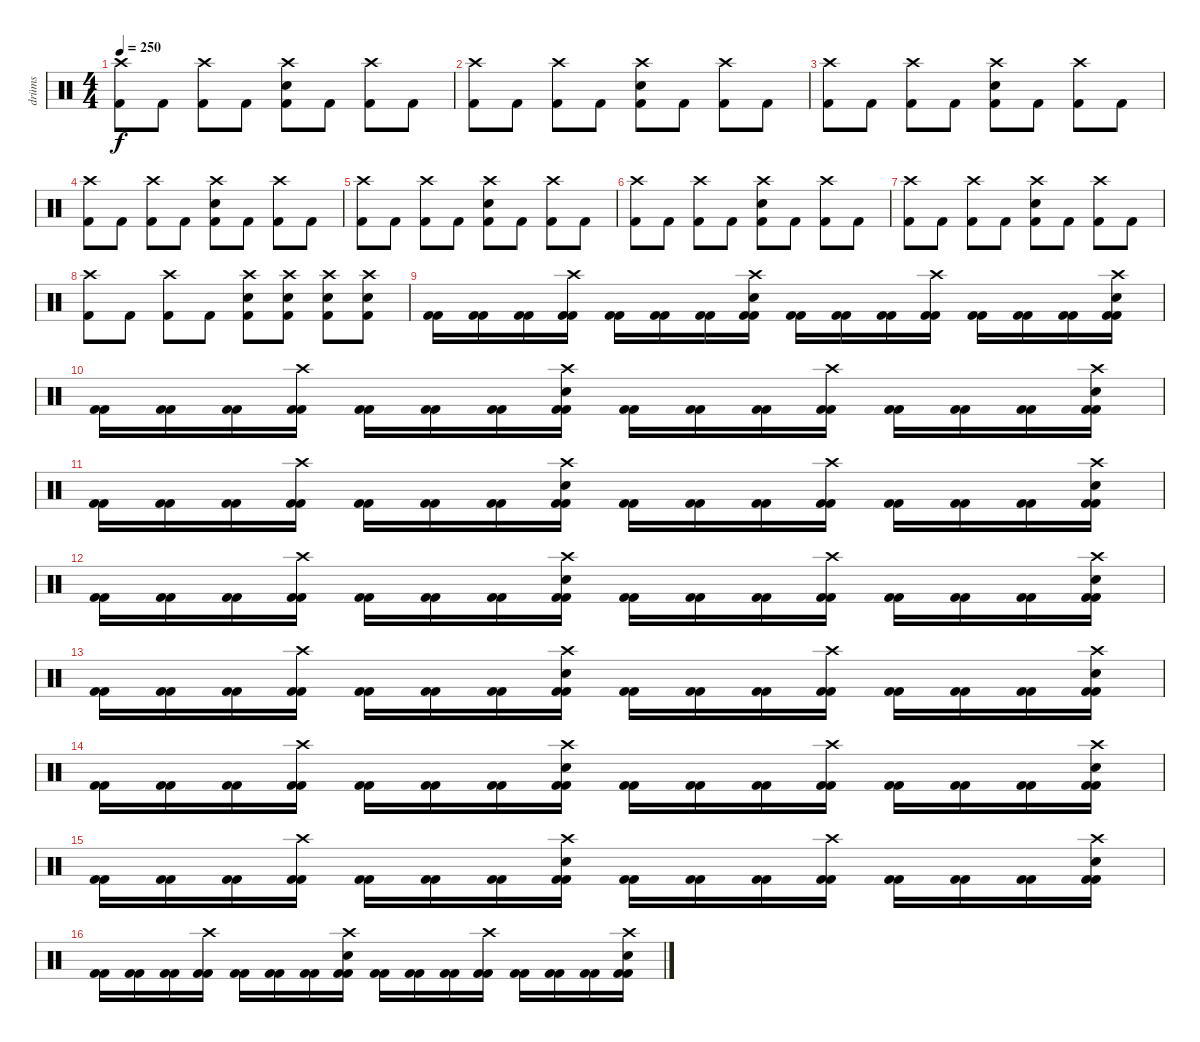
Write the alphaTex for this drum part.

\track ("drüms" "drüms") {instrument percussion}
\staff {score}
\articulation defaults
\ts (4 4)
\tempo 250
\clef neutral
\ks c
("Crash high (hit)" "Kick (hit) 2").8{dy f} "Kick (hit) 2".8 ("Crash high (hit)" "Kick (hit) 2").8 "Kick (hit) 2".8 ("Electric Snare (hit)" "Crash high (hit)" "Kick (hit) 2").8 "Kick (hit) 2".8 ("Crash high (hit)" "Kick (hit) 2").8 "Kick (hit) 2".8 |
("Crash high (hit)" "Kick (hit) 2").8 "Kick (hit) 2".8 ("Crash high (hit)" "Kick (hit) 2").8 "Kick (hit) 2".8 ("Electric Snare (hit)" "Crash high (hit)" "Kick (hit) 2").8 "Kick (hit) 2".8 ("Crash high (hit)" "Kick (hit) 2").8 "Kick (hit) 2".8 |
("Crash high (hit)" "Kick (hit) 2").8 "Kick (hit) 2".8 ("Crash high (hit)" "Kick (hit) 2").8 "Kick (hit) 2".8 ("Electric Snare (hit)" "Crash high (hit)" "Kick (hit) 2").8 "Kick (hit) 2".8 ("Crash high (hit)" "Kick (hit) 2").8 "Kick (hit) 2".8 |
("Crash high (hit)" "Kick (hit) 2").8 "Kick (hit) 2".8 ("Crash high (hit)" "Kick (hit) 2").8 "Kick (hit) 2".8 ("Electric Snare (hit)" "Crash high (hit)" "Kick (hit) 2").8 "Kick (hit) 2".8 ("Crash high (hit)" "Kick (hit) 2").8 "Kick (hit) 2".8 |
("Crash high (hit)" "Kick (hit) 2").8 "Kick (hit) 2".8 ("Crash high (hit)" "Kick (hit) 2").8 "Kick (hit) 2".8 ("Electric Snare (hit)" "Crash high (hit)" "Kick (hit) 2").8 "Kick (hit) 2".8 ("Crash high (hit)" "Kick (hit) 2").8 "Kick (hit) 2".8 |
("Crash high (hit)" "Kick (hit) 2").8 "Kick (hit) 2".8 ("Crash high (hit)" "Kick (hit) 2").8 "Kick (hit) 2".8 ("Electric Snare (hit)" "Crash high (hit)" "Kick (hit) 2").8 "Kick (hit) 2".8 ("Crash high (hit)" "Kick (hit) 2").8 "Kick (hit) 2".8 |
("Crash high (hit)" "Kick (hit) 2").8 "Kick (hit) 2".8 ("Crash high (hit)" "Kick (hit) 2").8 "Kick (hit) 2".8 ("Electric Snare (hit)" "Crash high (hit)" "Kick (hit) 2").8 "Kick (hit) 2".8 ("Crash high (hit)" "Kick (hit) 2").8 "Kick (hit) 2".8 |
("Crash high (hit)" "Kick (hit) 2").8 "Kick (hit) 2".8 ("Crash high (hit)" "Kick (hit) 2").8 "Kick (hit) 2".8 ("Electric Snare (hit)" "Crash high (hit)" "Kick (hit) 2").8 ("Electric Snare (hit)" "Crash high (hit)" "Kick (hit) 2").8 ("Electric Snare (hit)" "Crash high (hit)" "Kick (hit) 2").8 ("Electric Snare (hit)" "Crash high (hit)" "Kick (hit) 2").8 |
("Kick (hit) 2" "Kick (hit) 2").16 ("Kick (hit) 2" "Kick (hit) 2").16 ("Kick (hit) 2" "Kick (hit) 2").16 ("Crash high (hit)" "Kick (hit) 2" "Kick (hit) 2").16 ("Kick (hit) 2" "Kick (hit) 2").16 ("Kick (hit) 2" "Kick (hit) 2").16 ("Kick (hit) 2" "Kick (hit) 2").16 ("Electric Snare (hit)" "Crash high (hit)" "Kick (hit) 2" "Kick (hit) 2").16 ("Kick (hit) 2" "Kick (hit) 2").16 ("Kick (hit) 2" "Kick (hit) 2").16 ("Kick (hit) 2" "Kick (hit) 2").16 ("Crash high (hit)" "Kick (hit) 2" "Kick (hit) 2").16 ("Kick (hit) 2" "Kick (hit) 2").16 ("Kick (hit) 2" "Kick (hit) 2").16 ("Kick (hit) 2" "Kick (hit) 2").16 ("Electric Snare (hit)" "Crash high (hit)" "Kick (hit) 2" "Kick (hit) 2").16 |
("Kick (hit) 2" "Kick (hit) 2").16 ("Kick (hit) 2" "Kick (hit) 2").16 ("Kick (hit) 2" "Kick (hit) 2").16 ("Crash high (hit)" "Kick (hit) 2" "Kick (hit) 2").16 ("Kick (hit) 2" "Kick (hit) 2").16 ("Kick (hit) 2" "Kick (hit) 2").16 ("Kick (hit) 2" "Kick (hit) 2").16 ("Electric Snare (hit)" "Crash high (hit)" "Kick (hit) 2" "Kick (hit) 2").16 ("Kick (hit) 2" "Kick (hit) 2").16 ("Kick (hit) 2" "Kick (hit) 2").16 ("Kick (hit) 2" "Kick (hit) 2").16 ("Crash high (hit)" "Kick (hit) 2" "Kick (hit) 2").16 ("Kick (hit) 2" "Kick (hit) 2").16 ("Kick (hit) 2" "Kick (hit) 2").16 ("Kick (hit) 2" "Kick (hit) 2").16 ("Electric Snare (hit)" "Crash high (hit)" "Kick (hit) 2" "Kick (hit) 2").16 |
("Kick (hit) 2" "Kick (hit) 2").16 ("Kick (hit) 2" "Kick (hit) 2").16 ("Kick (hit) 2" "Kick (hit) 2").16 ("Crash high (hit)" "Kick (hit) 2" "Kick (hit) 2").16 ("Kick (hit) 2" "Kick (hit) 2").16 ("Kick (hit) 2" "Kick (hit) 2").16 ("Kick (hit) 2" "Kick (hit) 2").16 ("Electric Snare (hit)" "Crash high (hit)" "Kick (hit) 2" "Kick (hit) 2").16 ("Kick (hit) 2" "Kick (hit) 2").16 ("Kick (hit) 2" "Kick (hit) 2").16 ("Kick (hit) 2" "Kick (hit) 2").16 ("Crash high (hit)" "Kick (hit) 2" "Kick (hit) 2").16 ("Kick (hit) 2" "Kick (hit) 2").16 ("Kick (hit) 2" "Kick (hit) 2").16 ("Kick (hit) 2" "Kick (hit) 2").16 ("Electric Snare (hit)" "Crash high (hit)" "Kick (hit) 2" "Kick (hit) 2").16 |
("Kick (hit) 2" "Kick (hit) 2").16 ("Kick (hit) 2" "Kick (hit) 2").16 ("Kick (hit) 2" "Kick (hit) 2").16 ("Crash high (hit)" "Kick (hit) 2" "Kick (hit) 2").16 ("Kick (hit) 2" "Kick (hit) 2").16 ("Kick (hit) 2" "Kick (hit) 2").16 ("Kick (hit) 2" "Kick (hit) 2").16 ("Electric Snare (hit)" "Crash high (hit)" "Kick (hit) 2" "Kick (hit) 2").16 ("Kick (hit) 2" "Kick (hit) 2").16 ("Kick (hit) 2" "Kick (hit) 2").16 ("Kick (hit) 2" "Kick (hit) 2").16 ("Crash high (hit)" "Kick (hit) 2" "Kick (hit) 2").16 ("Kick (hit) 2" "Kick (hit) 2").16 ("Kick (hit) 2" "Kick (hit) 2").16 ("Kick (hit) 2" "Kick (hit) 2").16 ("Electric Snare (hit)" "Crash high (hit)" "Kick (hit) 2" "Kick (hit) 2").16 |
("Kick (hit) 2" "Kick (hit) 2").16 ("Kick (hit) 2" "Kick (hit) 2").16 ("Kick (hit) 2" "Kick (hit) 2").16 ("Crash high (hit)" "Kick (hit) 2" "Kick (hit) 2").16 ("Kick (hit) 2" "Kick (hit) 2").16 ("Kick (hit) 2" "Kick (hit) 2").16 ("Kick (hit) 2" "Kick (hit) 2").16 ("Electric Snare (hit)" "Crash high (hit)" "Kick (hit) 2" "Kick (hit) 2").16 ("Kick (hit) 2" "Kick (hit) 2").16 ("Kick (hit) 2" "Kick (hit) 2").16 ("Kick (hit) 2" "Kick (hit) 2").16 ("Crash high (hit)" "Kick (hit) 2" "Kick (hit) 2").16 ("Kick (hit) 2" "Kick (hit) 2").16 ("Kick (hit) 2" "Kick (hit) 2").16 ("Kick (hit) 2" "Kick (hit) 2").16 ("Electric Snare (hit)" "Crash high (hit)" "Kick (hit) 2" "Kick (hit) 2").16 |
("Kick (hit) 2" "Kick (hit) 2").16 ("Kick (hit) 2" "Kick (hit) 2").16 ("Kick (hit) 2" "Kick (hit) 2").16 ("Crash high (hit)" "Kick (hit) 2" "Kick (hit) 2").16 ("Kick (hit) 2" "Kick (hit) 2").16 ("Kick (hit) 2" "Kick (hit) 2").16 ("Kick (hit) 2" "Kick (hit) 2").16 ("Electric Snare (hit)" "Crash high (hit)" "Kick (hit) 2" "Kick (hit) 2").16 ("Kick (hit) 2" "Kick (hit) 2").16 ("Kick (hit) 2" "Kick (hit) 2").16 ("Kick (hit) 2" "Kick (hit) 2").16 ("Crash high (hit)" "Kick (hit) 2" "Kick (hit) 2").16 ("Kick (hit) 2" "Kick (hit) 2").16 ("Kick (hit) 2" "Kick (hit) 2").16 ("Kick (hit) 2" "Kick (hit) 2").16 ("Electric Snare (hit)" "Crash high (hit)" "Kick (hit) 2" "Kick (hit) 2").16 |
("Kick (hit) 2" "Kick (hit) 2").16 ("Kick (hit) 2" "Kick (hit) 2").16 ("Kick (hit) 2" "Kick (hit) 2").16 ("Crash high (hit)" "Kick (hit) 2" "Kick (hit) 2").16 ("Kick (hit) 2" "Kick (hit) 2").16 ("Kick (hit) 2" "Kick (hit) 2").16 ("Kick (hit) 2" "Kick (hit) 2").16 ("Electric Snare (hit)" "Crash high (hit)" "Kick (hit) 2" "Kick (hit) 2").16 ("Kick (hit) 2" "Kick (hit) 2").16 ("Kick (hit) 2" "Kick (hit) 2").16 ("Kick (hit) 2" "Kick (hit) 2").16 ("Crash high (hit)" "Kick (hit) 2" "Kick (hit) 2").16 ("Kick (hit) 2" "Kick (hit) 2").16 ("Kick (hit) 2" "Kick (hit) 2").16 ("Kick (hit) 2" "Kick (hit) 2").16 ("Electric Snare (hit)" "Crash high (hit)" "Kick (hit) 2" "Kick (hit) 2").16 |
("Kick (hit) 2" "Kick (hit) 2").16 ("Kick (hit) 2" "Kick (hit) 2").16 ("Kick (hit) 2" "Kick (hit) 2").16 ("Crash high (hit)" "Kick (hit) 2" "Kick (hit) 2").16 ("Kick (hit) 2" "Kick (hit) 2").16 ("Kick (hit) 2" "Kick (hit) 2").16 ("Kick (hit) 2" "Kick (hit) 2").16 ("Electric Snare (hit)" "Crash high (hit)" "Kick (hit) 2" "Kick (hit) 2").16 ("Kick (hit) 2" "Kick (hit) 2").16 ("Kick (hit) 2" "Kick (hit) 2").16 ("Kick (hit) 2" "Kick (hit) 2").16 ("Crash high (hit)" "Kick (hit) 2" "Kick (hit) 2").16 ("Kick (hit) 2" "Kick (hit) 2").16 ("Kick (hit) 2" "Kick (hit) 2").16 ("Kick (hit) 2" "Kick (hit) 2").16 ("Electric Snare (hit)" "Crash high (hit)" "Kick (hit) 2" "Kick (hit) 2").16
